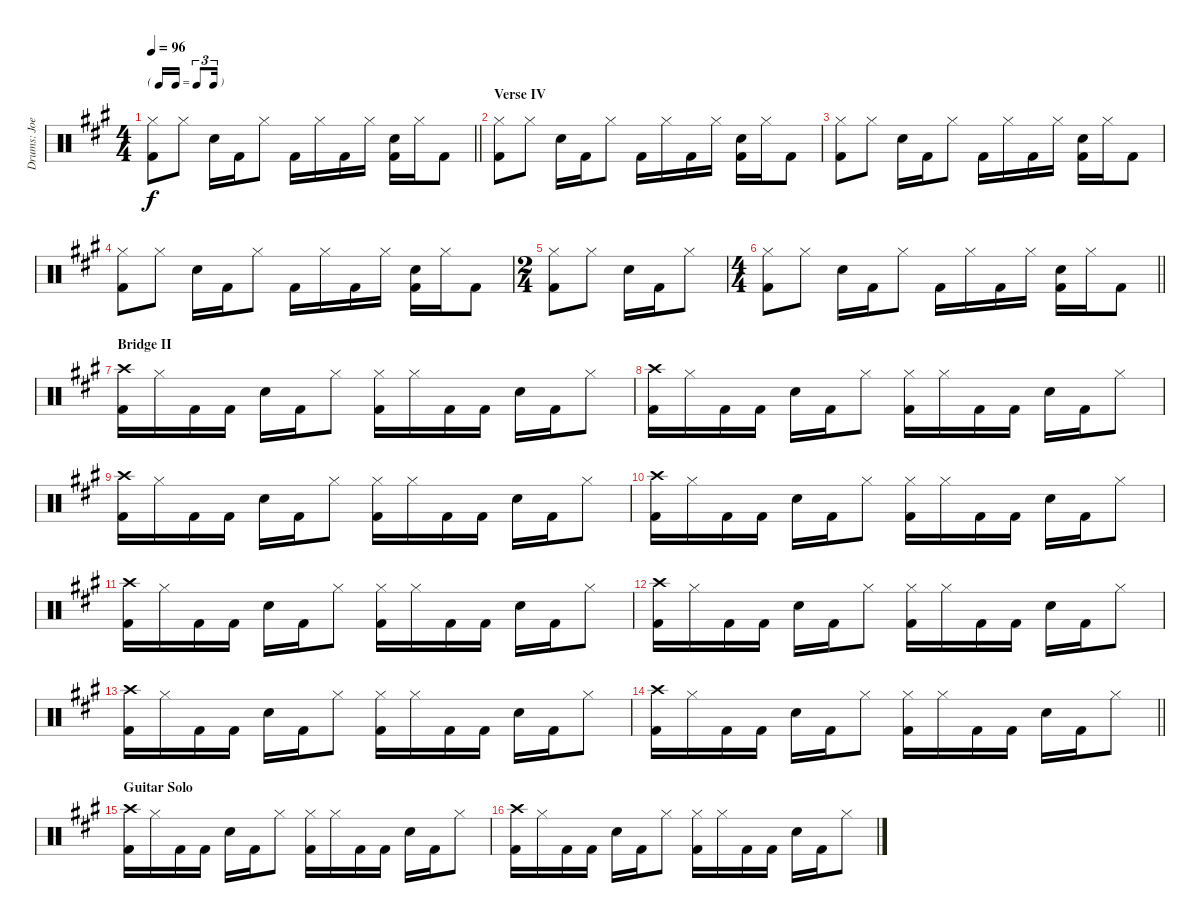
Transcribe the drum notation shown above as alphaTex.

\track ("Drums: Joey" "Drums: Joe") {instrument percussion}
\staff {score}
\articulation defaults
\ts (4 4)
\tf triplet16th
\tempo 96
\clef neutral
\barLineRight lightlight
\ks a
("Hi-Hat (closed)" "Kick (hit) 2").8{dy f} "Hi-Hat (closed)".8 "Electric Snare (hit)".16 "Kick (hit) 2".16 "Hi-Hat (closed)".8 "Kick (hit) 2".16 "Hi-Hat (closed)".16 "Kick (hit) 2".16 "Hi-Hat (closed)".16 ("Electric Snare (hit)" "Kick (hit) 2").16 "Hi-Hat (closed)".16 "Kick (hit) 2".8 |
\section ("" "Verse IV")
("Hi-Hat (closed)" "Kick (hit) 2").8 "Hi-Hat (closed)".8 "Electric Snare (hit)".16 "Kick (hit) 2".16 "Hi-Hat (closed)".8 "Kick (hit) 2".16 "Hi-Hat (closed)".16 "Kick (hit) 2".16 "Hi-Hat (closed)".16 ("Electric Snare (hit)" "Kick (hit) 2").16 "Hi-Hat (closed)".16 "Kick (hit) 2".8 |
("Hi-Hat (closed)" "Kick (hit) 2").8 "Hi-Hat (closed)".8 "Electric Snare (hit)".16 "Kick (hit) 2".16 "Hi-Hat (closed)".8 "Kick (hit) 2".16 "Hi-Hat (closed)".16 "Kick (hit) 2".16 "Hi-Hat (closed)".16 ("Electric Snare (hit)" "Kick (hit) 2").16 "Hi-Hat (closed)".16 "Kick (hit) 2".8 |
("Hi-Hat (closed)" "Kick (hit) 2").8 "Hi-Hat (closed)".8 "Electric Snare (hit)".16 "Kick (hit) 2".16 "Hi-Hat (closed)".8 "Kick (hit) 2".16 "Hi-Hat (closed)".16 "Kick (hit) 2".16 "Hi-Hat (closed)".16 ("Electric Snare (hit)" "Kick (hit) 2").16 "Hi-Hat (closed)".16 "Kick (hit) 2".8 |
\ts (2 4)
("Hi-Hat (closed)" "Kick (hit) 2").8 "Hi-Hat (closed)".8 "Electric Snare (hit)".16 "Kick (hit) 2".16 "Hi-Hat (closed)".8 |
\ts (4 4)
\barLineRight lightlight
("Hi-Hat (closed)" "Kick (hit) 2").8 "Hi-Hat (closed)".8 "Electric Snare (hit)".16 "Kick (hit) 2".16 "Hi-Hat (closed)".8 "Kick (hit) 2".16 "Hi-Hat (closed)".16 "Kick (hit) 2".16 "Hi-Hat (closed)".16 ("Electric Snare (hit)" "Kick (hit) 2").16 "Hi-Hat (closed)".16 "Kick (hit) 2".8 |
\section ("" "Bridge II")
("Crash high (hit)" "Kick (hit) 2").16 "Hi-Hat (closed)".16 "Kick (hit) 2".16 "Kick (hit) 2".16 "Electric Snare (hit)".16 "Kick (hit) 2".16 "Hi-Hat (closed)".8 ("Hi-Hat (closed)" "Kick (hit) 2").16 "Hi-Hat (closed)".16 "Kick (hit) 2".16 "Kick (hit) 2".16 "Electric Snare (hit)".16 "Kick (hit) 2".16 "Hi-Hat (closed)".8 |
("Crash high (hit)" "Kick (hit) 2").16 "Hi-Hat (closed)".16 "Kick (hit) 2".16 "Kick (hit) 2".16 "Electric Snare (hit)".16 "Kick (hit) 2".16 "Hi-Hat (closed)".8 ("Hi-Hat (closed)" "Kick (hit) 2").16 "Hi-Hat (closed)".16 "Kick (hit) 2".16 "Kick (hit) 2".16 "Electric Snare (hit)".16 "Kick (hit) 2".16 "Hi-Hat (closed)".8 |
("Crash high (hit)" "Kick (hit) 2").16 "Hi-Hat (closed)".16 "Kick (hit) 2".16 "Kick (hit) 2".16 "Electric Snare (hit)".16 "Kick (hit) 2".16 "Hi-Hat (closed)".8 ("Hi-Hat (closed)" "Kick (hit) 2").16 "Hi-Hat (closed)".16 "Kick (hit) 2".16 "Kick (hit) 2".16 "Electric Snare (hit)".16 "Kick (hit) 2".16 "Hi-Hat (closed)".8 |
("Crash high (hit)" "Kick (hit) 2").16 "Hi-Hat (closed)".16 "Kick (hit) 2".16 "Kick (hit) 2".16 "Electric Snare (hit)".16 "Kick (hit) 2".16 "Hi-Hat (closed)".8 ("Hi-Hat (closed)" "Kick (hit) 2").16 "Hi-Hat (closed)".16 "Kick (hit) 2".16 "Kick (hit) 2".16 "Electric Snare (hit)".16 "Kick (hit) 2".16 "Hi-Hat (closed)".8 |
("Crash high (hit)" "Kick (hit) 2").16 "Hi-Hat (closed)".16 "Kick (hit) 2".16 "Kick (hit) 2".16 "Electric Snare (hit)".16 "Kick (hit) 2".16 "Hi-Hat (closed)".8 ("Hi-Hat (closed)" "Kick (hit) 2").16 "Hi-Hat (closed)".16 "Kick (hit) 2".16 "Kick (hit) 2".16 "Electric Snare (hit)".16 "Kick (hit) 2".16 "Hi-Hat (closed)".8 |
("Crash high (hit)" "Kick (hit) 2").16 "Hi-Hat (closed)".16 "Kick (hit) 2".16 "Kick (hit) 2".16 "Electric Snare (hit)".16 "Kick (hit) 2".16 "Hi-Hat (closed)".8 ("Hi-Hat (closed)" "Kick (hit) 2").16 "Hi-Hat (closed)".16 "Kick (hit) 2".16 "Kick (hit) 2".16 "Electric Snare (hit)".16 "Kick (hit) 2".16 "Hi-Hat (closed)".8 |
("Crash high (hit)" "Kick (hit) 2").16 "Hi-Hat (closed)".16 "Kick (hit) 2".16 "Kick (hit) 2".16 "Electric Snare (hit)".16 "Kick (hit) 2".16 "Hi-Hat (closed)".8 ("Hi-Hat (closed)" "Kick (hit) 2").16 "Hi-Hat (closed)".16 "Kick (hit) 2".16 "Kick (hit) 2".16 "Electric Snare (hit)".16 "Kick (hit) 2".16 "Hi-Hat (closed)".8 |
\barLineRight lightlight
("Crash high (hit)" "Kick (hit) 2").16 "Hi-Hat (closed)".16 "Kick (hit) 2".16 "Kick (hit) 2".16 "Electric Snare (hit)".16 "Kick (hit) 2".16 "Hi-Hat (closed)".8 ("Hi-Hat (closed)" "Kick (hit) 2").16 "Hi-Hat (closed)".16 "Kick (hit) 2".16 "Kick (hit) 2".16 "Electric Snare (hit)".16 "Kick (hit) 2".16 "Hi-Hat (closed)".8 |
\section ("" "Guitar Solo")
("Crash high (hit)" "Kick (hit) 2").16 "Hi-Hat (closed)".16 "Kick (hit) 2".16 "Kick (hit) 2".16 "Electric Snare (hit)".16 "Kick (hit) 2".16 "Hi-Hat (closed)".8 ("Hi-Hat (closed)" "Kick (hit) 2").16 "Hi-Hat (closed)".16 "Kick (hit) 2".16 "Kick (hit) 2".16 "Electric Snare (hit)".16 "Kick (hit) 2".16 "Hi-Hat (closed)".8 |
("Crash high (hit)" "Kick (hit) 2").16 "Hi-Hat (closed)".16 "Kick (hit) 2".16 "Kick (hit) 2".16 "Electric Snare (hit)".16 "Kick (hit) 2".16 "Hi-Hat (closed)".8 ("Hi-Hat (closed)" "Kick (hit) 2").16 "Hi-Hat (closed)".16 "Kick (hit) 2".16 "Kick (hit) 2".16 "Electric Snare (hit)".16 "Kick (hit) 2".16 "Hi-Hat (closed)".8
